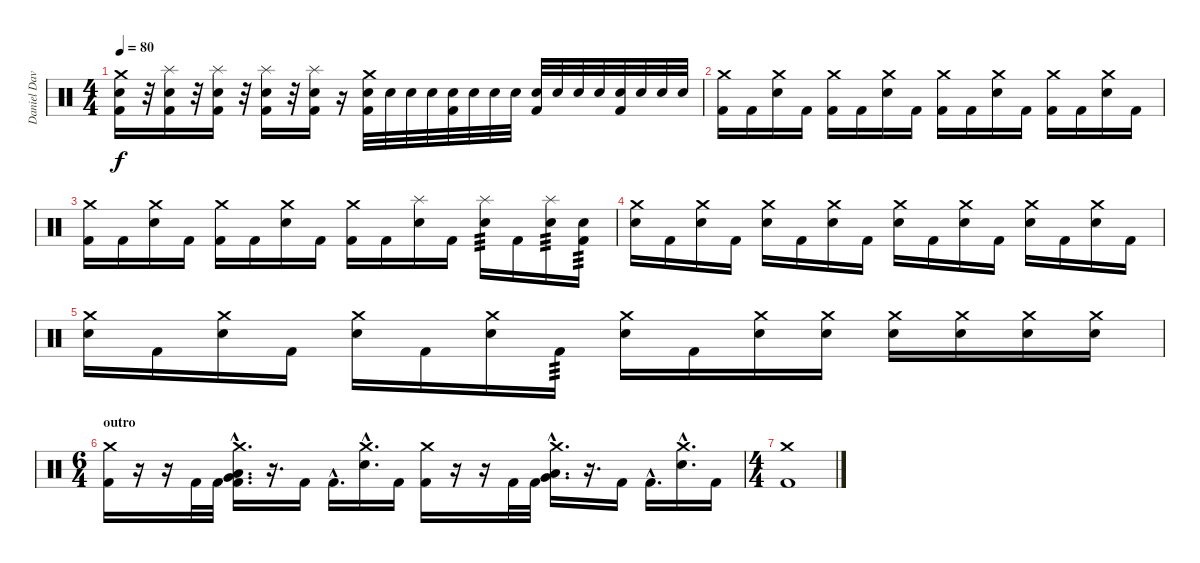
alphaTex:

\track ("Daniel Davison" "Daniel Dav") {instrument percussion}
\staff {score}
\articulation defaults
\ts (4 4)
\tempo 80
\clef neutral
\ks c
("Crash medium (hit)" "Electric Snare (hit)" "Kick (hit) 2").16{dy f} r.32 ("Splash (hit)" "Electric Snare (hit)" "Kick (hit) 2").16 r.32 ("Splash (hit)" "Electric Snare (hit)" "Kick (hit) 2").16 r.32 ("Splash (hit)" "Electric Snare (hit)" "Kick (hit) 2").16 r.32 ("Splash (hit)" "Electric Snare (hit)" "Kick (hit) 2").16 r.16 ("Crash medium (hit)" "Electric Snare (hit)" "Kick (hit) 2").32 "Electric Snare (hit)".32 "Electric Snare (hit)".32 "Electric Snare (hit)".32 ("Electric Snare (hit)" "Kick (hit) 2").32 "Electric Snare (hit)".32 "Electric Snare (hit)".32 "Electric Snare (hit)".32 ("Electric Snare (hit)" "Kick (hit) 2").32 "Electric Snare (hit)".32 "Electric Snare (hit)".32 "Electric Snare (hit)".32 ("Electric Snare (hit)" "Kick (hit) 2").32 "Electric Snare (hit)".32 "Electric Snare (hit)".32 "Electric Snare (hit)".32 |
("Crash medium (hit)" "Kick (hit) 2").16 "Kick (hit) 2".16 ("Crash medium (hit)" "Electric Snare (hit)").16 "Kick (hit) 2".16 ("Crash medium (hit)" "Kick (hit) 2").16 "Kick (hit) 2".16 ("Crash medium (hit)" "Electric Snare (hit)").16 "Kick (hit) 2".16 ("Crash medium (hit)" "Kick (hit) 2").16 "Kick (hit) 2".16 ("Crash medium (hit)" "Electric Snare (hit)").16 "Kick (hit) 2".16 ("Crash medium (hit)" "Kick (hit) 2").16 "Kick (hit) 2".16 ("Crash medium (hit)" "Electric Snare (hit)").16 "Kick (hit) 2".16 |
("Crash medium (hit)" "Kick (hit) 2").16 "Kick (hit) 2".16 ("Crash medium (hit)" "Electric Snare (hit)").16 "Kick (hit) 2".16 ("Crash medium (hit)" "Kick (hit) 2").16 "Kick (hit) 2".16 ("Crash medium (hit)" "Electric Snare (hit)").16 "Kick (hit) 2".16 ("Crash medium (hit)" "Kick (hit) 2").16 "Kick (hit) 2".16 ("Splash (hit)" "Electric Snare (hit)").16 "Kick (hit) 2".16 ("Splash (hit)" "Electric Snare (hit)").16{tp 3} "Kick (hit) 2".16 ("Splash (hit)" "Electric Snare (hit)").16{tp 3} ("Electric Snare (hit)" "Kick (hit) 2").16{tp 3} |
("Crash medium (hit)" "Electric Snare (hit)").16 "Kick (hit) 2".16 ("Crash medium (hit)" "Electric Snare (hit)").16 "Kick (hit) 2".16 ("Crash medium (hit)" "Electric Snare (hit)").16 "Kick (hit) 2".16 ("Crash medium (hit)" "Electric Snare (hit)").16 "Kick (hit) 2".16 ("Crash medium (hit)" "Electric Snare (hit)").16 "Kick (hit) 2".16 ("Crash medium (hit)" "Electric Snare (hit)").16 "Kick (hit) 2".16 ("Crash medium (hit)" "Electric Snare (hit)").16 "Kick (hit) 2".16 ("Crash medium (hit)" "Electric Snare (hit)").16 "Kick (hit) 2".16 |
("Crash medium (hit)" "Electric Snare (hit)").16 "Kick (hit) 2".16 ("Crash medium (hit)" "Electric Snare (hit)").16 "Kick (hit) 2".16 ("Crash medium (hit)" "Electric Snare (hit)").16 "Kick (hit) 2".16 ("Crash medium (hit)" "Electric Snare (hit)").16 "Kick (hit) 2".16{tp 3} ("Crash medium (hit)" "Electric Snare (hit)").16 "Kick (hit) 2".16 ("Crash medium (hit)" "Electric Snare (hit)").16 ("Crash medium (hit)" "Electric Snare (hit)").16 ("Crash medium (hit)" "Electric Snare (hit)").16 ("Crash medium (hit)" "Electric Snare (hit)").16 ("Crash medium (hit)" "Electric Snare (hit)").16 ("Crash medium (hit)" "Electric Snare (hit)").16 |
\ts (6 4)
\section ("" "outro")
("Crash medium (hit)" "Kick (hit) 2").16 r.16 r.16 "Kick (hit) 2".32 "Kick (hit) 2".32 ("Low Tom (hit)"{hac} "Crash medium (hit)"{hac} "Very Low Tom (hit)"{hac} "Kick (hit) 2"{hac}).16{d} r.16{d} "Kick (hit) 2".16 "Kick (hit) 2"{hac}.16{d} ("Crash medium (hit)"{hac} "Electric Snare (hit)"{hac}).16{d} "Kick (hit) 2".16 ("Crash medium (hit)" "Kick (hit) 2").16 r.16 r.16 "Kick (hit) 2".32 "Kick (hit) 2".32 ("Low Tom (hit)"{hac} "Crash medium (hit)"{hac} "Very Low Tom (hit)"{hac}).16{d} r.16{d} "Kick (hit) 2".16 "Kick (hit) 2"{hac}.16{d} ("Crash medium (hit)"{hac} "Electric Snare (hit)"{hac}).16{d} "Kick (hit) 2".16 |
\ts (4 4)
("Crash medium (hit)" "Kick (hit) 2").1
